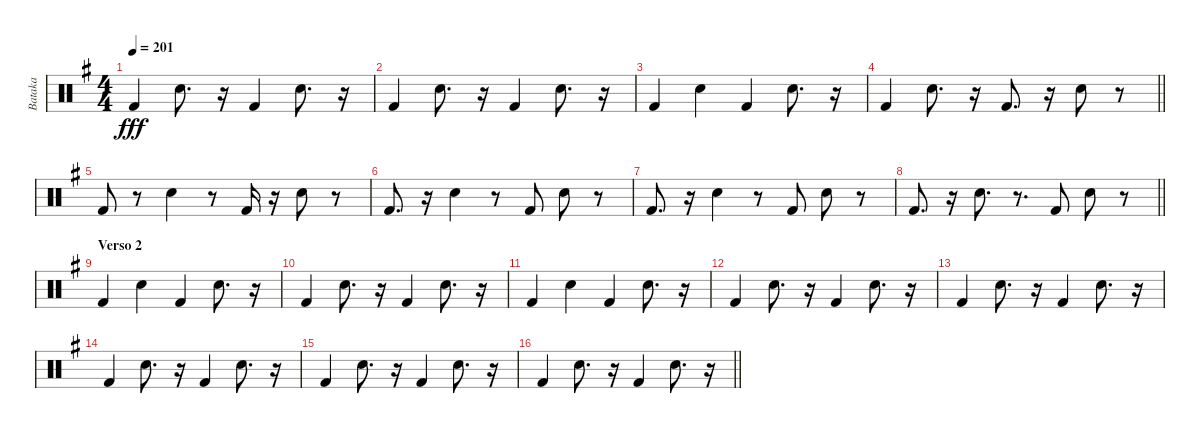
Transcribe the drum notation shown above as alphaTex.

\track ("Bataka" "Bataka") {instrument percussion}
\staff {score}
\articulation defaults
\ts (4 4)
\tempo 201
\clef neutral
\ks g "Kick (hit) 2".4{dy fff} "Electric Snare (hit)".8{d}
r.16 "Kick (hit) 2".4 "Electric Snare (hit)".8{d} r.16 |
"Kick (hit) 2".4 "Electric Snare (hit)".8{d} r.16 "Kick (hit) 2".4 "Electric Snare (hit)".8{d} r.16 |
"Kick (hit) 2".4 "Electric Snare (hit)".4 "Kick (hit) 2".4 "Electric Snare (hit)".8{d} r.16 |
\barLineRight lightlight "Kick (hit) 2".4 "Electric Snare (hit)".8{d}
r.16 "Kick (hit) 2".8{d} r.16 "Electric Snare (hit)".8 r.8 |
"Kick (hit) 2".8 r.8 "Electric Snare (hit)".4 r.8 "Kick (hit) 2".16 r.16 "Electric Snare (hit)".8 r.8 |
"Kick (hit) 2".8{d} r.16 "Electric Snare (hit)".4 r.8 "Kick (hit) 2".8 "Electric Snare (hit)".8 r.8 |
"Kick (hit) 2".8{d} r.16 "Electric Snare (hit)".4 r.8 "Kick (hit) 2".8 "Electric Snare (hit)".8 r.8 |
\barLineRight lightlight "Kick (hit) 2".8{d}
r.16 "Electric Snare (hit)".8{d} r.8{d} "Kick (hit) 2".8 "Electric Snare (hit)".8 r.8 |
\section ("" "Verso 2")
"Kick (hit) 2".4 "Electric Snare (hit)".4 "Kick (hit) 2".4 "Electric Snare (hit)".8{d} r.16 |
"Kick (hit) 2".4 "Electric Snare (hit)".8{d} r.16 "Kick (hit) 2".4 "Electric Snare (hit)".8{d} r.16 |
"Kick (hit) 2".4 "Electric Snare (hit)".4 "Kick (hit) 2".4 "Electric Snare (hit)".8{d} r.16 |
"Kick (hit) 2".4 "Electric Snare (hit)".8{d} r.16 "Kick (hit) 2".4 "Electric Snare (hit)".8{d} r.16 |
"Kick (hit) 2".4 "Electric Snare (hit)".8{d} r.16 "Kick (hit) 2".4 "Electric Snare (hit)".8{d} r.16 |
"Kick (hit) 2".4 "Electric Snare (hit)".8{d} r.16 "Kick (hit) 2".4 "Electric Snare (hit)".8{d} r.16 |
"Kick (hit) 2".4 "Electric Snare (hit)".8{d} r.16 "Kick (hit) 2".4 "Electric Snare (hit)".8{d} r.16 |
\barLineRight lightlight "Kick (hit) 2".4 "Electric Snare (hit)".8{d}
r.16 "Kick (hit) 2".4 "Electric Snare (hit)".8{d} r.16
